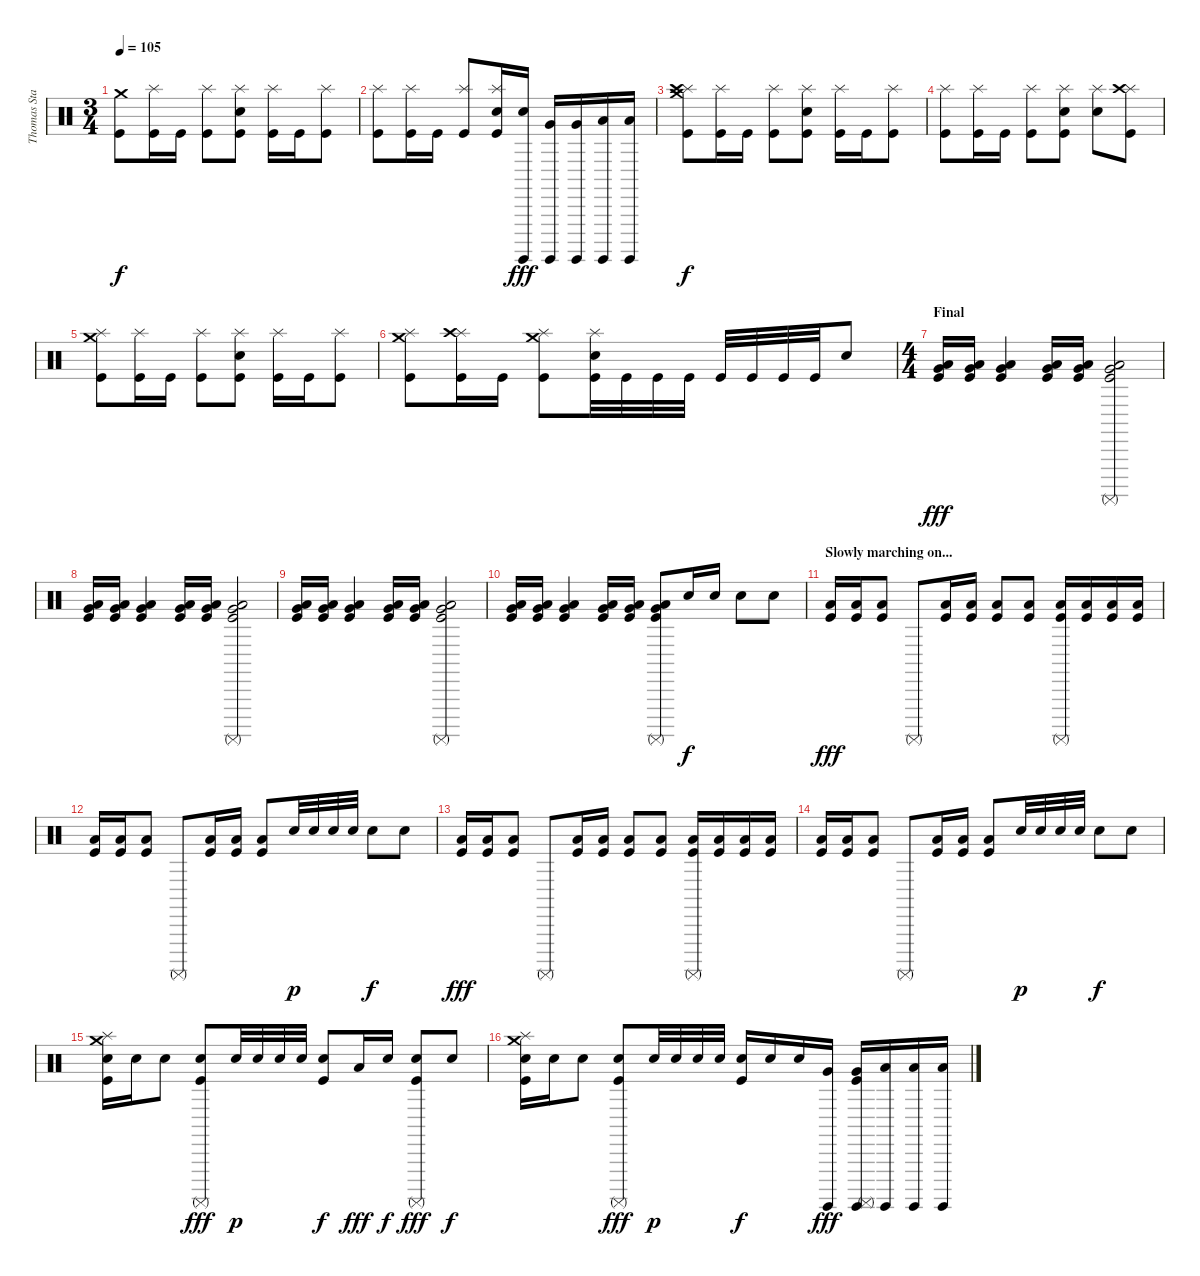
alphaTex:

\track ("Thomas Stauch" "Thomas Sta") {instrument percussion}
\staff {score}
\articulation defaults
\ts (3 4)
\tempo 105
\clef neutral
\ks c
("Crash medium (hit)" "Kick (hit)").8{dy f} ("Splash (hit)" "Kick (hit)").16 "Kick (hit)".16 ("Splash (hit)" "Kick (hit)").8 ("Splash (hit)" "Electric Snare (hit)" "Kick (hit)").8 ("Splash (hit)" "Kick (hit)").16 "Kick (hit)".16 ("Splash (hit)" "Kick (hit)").8 |
("Splash (hit)" "Kick (hit)").8 ("Splash (hit)" "Kick (hit)").16 "Kick (hit)".16 ("Splash (hit)" "Kick (hit)").8 ("Splash (hit)" "Electric Snare (hit)" "Kick (hit)").16 ("Surdo (hit)" "Electric Snare (hit)").16{dy fff} ("Surdo (hit)" "Very Low Tom (hit)").16 ("Surdo (hit)" "Very Low Tom (hit)").16 ("Surdo (hit)" "Low Floor Tom (hit)").16 ("Surdo (hit)" "Low Floor Tom (hit)").16 |
("Crash medium (hit)" "Splash (hit)" "Crash high (hit)" "Kick (hit)").8{dy f} ("Splash (hit)" "Kick (hit)").16 "Kick (hit)".16 ("Splash (hit)" "Kick (hit)").8 ("Splash (hit)" "Electric Snare (hit)" "Kick (hit)").8 ("Splash (hit)" "Kick (hit)").16 "Kick (hit)".16 ("Splash (hit)" "Kick (hit)").8 |
("Splash (hit)" "Kick (hit)").8 ("Splash (hit)" "Kick (hit)").16 "Kick (hit)".16 ("Splash (hit)" "Kick (hit)").8 ("Splash (hit)" "Electric Snare (hit)" "Kick (hit)").8 ("Splash (hit)" "Electric Snare (hit)").8 ("Splash (hit)" "Crash high (hit)" "Kick (hit)").8 |
("Crash medium (hit)" "Splash (hit)" "Kick (hit)").8 ("Splash (hit)" "Kick (hit)").16 "Kick (hit)".16 ("Splash (hit)" "Kick (hit)").8 ("Splash (hit)" "Electric Snare (hit)" "Kick (hit)").8 ("Splash (hit)" "Kick (hit)").16 "Kick (hit)".16 ("Splash (hit)" "Kick (hit)").8 |
("Crash medium (hit)" "Splash (hit)" "Kick (hit)").8 ("Splash (hit)" "Crash high (hit)" "Kick (hit)").16 "Kick (hit)".16 ("Crash medium (hit)" "Splash (hit)" "Kick (hit)").8 ("Splash (hit)" "Electric Snare (hit)" "Kick (hit)").32 "Kick (hit)".32 "Kick (hit)".32 "Kick (hit)".32 "Kick (hit)".32 "Kick (hit)".32 "Kick (hit)".32 "Kick (hit)".32 "Electric Snare (hit)".8 |
\ts (4 4)
\section ("" "Final")
("Very Low Tom (hit)" "Low Floor Tom (hit)" "Kick (hit)").16{dy fff} ("Very Low Tom (hit)" "Low Floor Tom (hit)" "Kick (hit)").16 ("Very Low Tom (hit)" "Low Floor Tom (hit)" "Kick (hit)").4 ("Very Low Tom (hit)" "Low Floor Tom (hit)" "Kick (hit)").16 ("Very Low Tom (hit)" "Low Floor Tom (hit)" "Kick (hit)").16 ("Surdo (mute)" "Very Low Tom (hit)" "Low Floor Tom (hit)" "Kick (hit)").2 |
("Very Low Tom (hit)" "Low Floor Tom (hit)" "Kick (hit)").16 ("Very Low Tom (hit)" "Low Floor Tom (hit)" "Kick (hit)").16 ("Very Low Tom (hit)" "Low Floor Tom (hit)" "Kick (hit)").4 ("Very Low Tom (hit)" "Low Floor Tom (hit)" "Kick (hit)").16 ("Very Low Tom (hit)" "Low Floor Tom (hit)" "Kick (hit)").16 ("Surdo (mute)" "Very Low Tom (hit)" "Low Floor Tom (hit)" "Kick (hit)").2 |
("Very Low Tom (hit)" "Low Floor Tom (hit)" "Kick (hit)").16 ("Very Low Tom (hit)" "Low Floor Tom (hit)" "Kick (hit)").16 ("Very Low Tom (hit)" "Low Floor Tom (hit)" "Kick (hit)").4 ("Very Low Tom (hit)" "Low Floor Tom (hit)" "Kick (hit)").16 ("Very Low Tom (hit)" "Low Floor Tom (hit)" "Kick (hit)").16 ("Surdo (mute)" "Very Low Tom (hit)" "Low Floor Tom (hit)" "Kick (hit)").2 |
("Very Low Tom (hit)" "Low Floor Tom (hit)" "Kick (hit)").16 ("Very Low Tom (hit)" "Low Floor Tom (hit)" "Kick (hit)").16 ("Very Low Tom (hit)" "Low Floor Tom (hit)" "Kick (hit)").4 ("Very Low Tom (hit)" "Low Floor Tom (hit)" "Kick (hit)").16 ("Very Low Tom (hit)" "Low Floor Tom (hit)" "Kick (hit)").16 ("Surdo (mute)" "Very Low Tom (hit)" "Low Floor Tom (hit)" "Kick (hit)").8 "Electric Snare (hit)".16{dy f} "Electric Snare (hit)".16 "Electric Snare (hit)".8 "Electric Snare (hit)".8 |
\section ("" "Slowly marching on...")
("Low Floor Tom (hit)" "Kick (hit)").16{dy fff} ("Low Floor Tom (hit)" "Kick (hit)").16 ("Low Floor Tom (hit)" "Kick (hit)").8 "Surdo (mute)".8 ("Low Floor Tom (hit)" "Kick (hit)").16 ("Low Floor Tom (hit)" "Kick (hit)").16 ("Low Floor Tom (hit)" "Kick (hit)").8 ("Low Floor Tom (hit)" "Kick (hit)").8 ("Surdo (mute)" "Low Floor Tom (hit)" "Kick (hit)").16 ("Low Floor Tom (hit)" "Kick (hit)").16 ("Low Floor Tom (hit)" "Kick (hit)").16 ("Low Floor Tom (hit)" "Kick (hit)").16 |
("Low Floor Tom (hit)" "Kick (hit)").16 ("Low Floor Tom (hit)" "Kick (hit)").16 ("Low Floor Tom (hit)" "Kick (hit)").8 "Surdo (mute)".8 ("Low Floor Tom (hit)" "Kick (hit)").16 ("Low Floor Tom (hit)" "Kick (hit)").16 ("Low Floor Tom (hit)" "Kick (hit)").8 "Electric Snare (hit)".32{dy p} "Electric Snare (hit)".32 "Electric Snare (hit)".32 "Electric Snare (hit)".32 "Electric Snare (hit)".8{dy f} "Electric Snare (hit)".8 |
("Low Floor Tom (hit)" "Kick (hit)").16{dy fff} ("Low Floor Tom (hit)" "Kick (hit)").16 ("Low Floor Tom (hit)" "Kick (hit)").8 "Surdo (mute)".8 ("Low Floor Tom (hit)" "Kick (hit)").16 ("Low Floor Tom (hit)" "Kick (hit)").16 ("Low Floor Tom (hit)" "Kick (hit)").8 ("Low Floor Tom (hit)" "Kick (hit)").8 ("Surdo (mute)" "Low Floor Tom (hit)" "Kick (hit)").16 ("Low Floor Tom (hit)" "Kick (hit)").16 ("Low Floor Tom (hit)" "Kick (hit)").16 ("Low Floor Tom (hit)" "Kick (hit)").16 |
("Low Floor Tom (hit)" "Kick (hit)").16 ("Low Floor Tom (hit)" "Kick (hit)").16 ("Low Floor Tom (hit)" "Kick (hit)").8 "Surdo (mute)".8 ("Low Floor Tom (hit)" "Kick (hit)").16 ("Low Floor Tom (hit)" "Kick (hit)").16 ("Low Floor Tom (hit)" "Kick (hit)").8 "Electric Snare (hit)".32{dy p} "Electric Snare (hit)".32 "Electric Snare (hit)".32 "Electric Snare (hit)".32 "Electric Snare (hit)".8{dy f} "Electric Snare (hit)".8 |
("Crash medium (hit)" "Splash (hit)" "Electric Snare (hit)" "Kick (hit)").16 "Electric Snare (hit)".16 "Electric Snare (hit)".8 ("Surdo (mute)" "Electric Snare (hit)" "Kick (hit)").8{dy fff} "Electric Snare (hit)".32{dy p} "Electric Snare (hit)".32 "Electric Snare (hit)".32 "Electric Snare (hit)".32 ("Electric Snare (hit)" "Kick (hit)").8{dy f} "Low Floor Tom (hit)".16{dy fff} "Electric Snare (hit)".16{dy f} ("Surdo (mute)" "Electric Snare (hit)" "Kick (hit)").8{dy fff} "Electric Snare (hit)".8{dy f} |
("Crash medium (hit)" "Splash (hit)" "Electric Snare (hit)" "Kick (hit)").16 "Electric Snare (hit)".16 "Electric Snare (hit)".8 ("Surdo (mute)" "Electric Snare (hit)" "Kick (hit)").8{dy fff} "Electric Snare (hit)".32{dy p} "Electric Snare (hit)".32 "Electric Snare (hit)".32 "Electric Snare (hit)".32 ("Electric Snare (hit)" "Kick (hit)").16{dy f} "Electric Snare (hit)".16 "Electric Snare (hit)".16 ("Surdo (hit)" "Very Low Tom (hit)").16{dy fff} ("Surdo (mute)" "Surdo (hit)" "Very Low Tom (hit)" "Kick (hit)").16 ("Surdo (hit)" "Low Floor Tom (hit)").16 ("Surdo (hit)" "Low Floor Tom (hit)").16 ("Surdo (hit)" "Low Floor Tom (hit)").16
